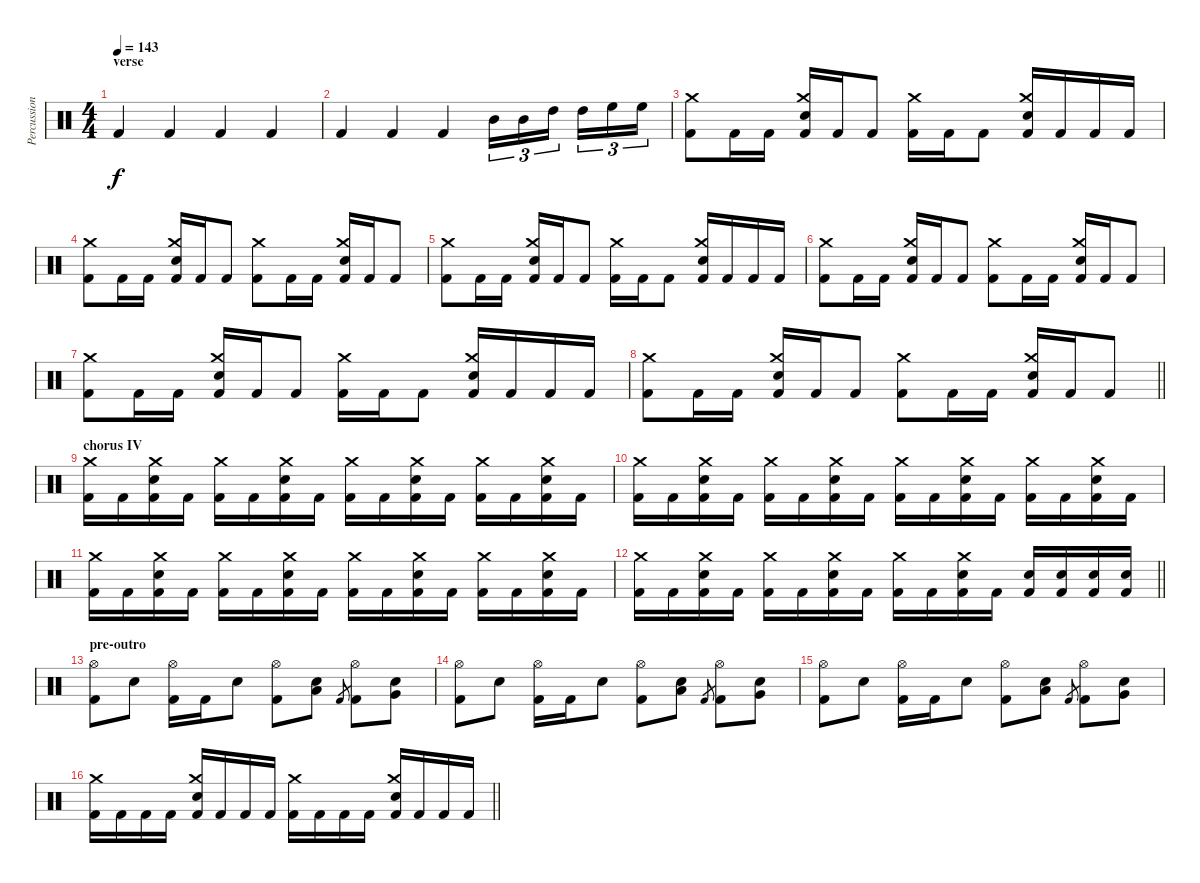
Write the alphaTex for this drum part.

\track ("Percussion" "Percussion") {instrument percussion}
\staff {score}
\articulation defaults
\ts (4 4)
\section ("" "verse")
\tempo 143
\clef neutral
\ks c "Kick (hit) 2".4{dy f} "Kick (hit) 2".4 "Kick (hit) 2".4 "Kick (hit) 2".4
|
"Kick (hit) 2".4 "Kick (hit) 2".4 "Kick (hit) 2".4 "Mid Tom (hit)".16{tu (3 2)} "Mid Tom (hit)".16{tu (3 2)} "High Tom (hit)".16{tu (3 2) beam splitsecondary} "High Tom (hit)".16{tu (3 2)} "High Floor Tom (hit)".16{tu (3 2)} "High Floor Tom (hit)".16{tu (3 2)} |
("Crash medium (hit)" "Kick (hit) 2").8 "Kick (hit) 2".16 "Kick (hit) 2".16 ("Crash medium (hit)" "Snare (hit) 2" "Kick (hit) 2").16 "Kick (hit) 2".16 "Kick (hit) 2".8 ("Crash medium (hit)" "Kick (hit) 2").16 "Kick (hit) 2".16 "Kick (hit) 2".8 ("Crash medium (hit)" "Snare (hit) 2" "Kick (hit) 2").16 "Kick (hit) 2".16 "Kick (hit) 2".16 "Kick (hit) 2".16 |
("Crash medium (hit)" "Kick (hit) 2").8 "Kick (hit) 2".16 "Kick (hit) 2".16 ("Crash medium (hit)" "Snare (hit) 2" "Kick (hit) 2").16 "Kick (hit) 2".16 "Kick (hit) 2".8 ("Crash medium (hit)" "Kick (hit) 2").8 "Kick (hit) 2".16 "Kick (hit) 2".16 ("Crash medium (hit)" "Snare (hit) 2" "Kick (hit) 2").16 "Kick (hit) 2".16 "Kick (hit) 2".8 |
("Crash medium (hit)" "Kick (hit) 2").8 "Kick (hit) 2".16 "Kick (hit) 2".16 ("Crash medium (hit)" "Snare (hit) 2" "Kick (hit) 2").16 "Kick (hit) 2".16 "Kick (hit) 2".8 ("Crash medium (hit)" "Kick (hit) 2").16 "Kick (hit) 2".16 "Kick (hit) 2".8 ("Crash medium (hit)" "Snare (hit) 2" "Kick (hit) 2").16 "Kick (hit) 2".16 "Kick (hit) 2".16 "Kick (hit) 2".16 |
("Crash medium (hit)" "Kick (hit) 2").8 "Kick (hit) 2".16 "Kick (hit) 2".16 ("Crash medium (hit)" "Snare (hit) 2" "Kick (hit) 2").16 "Kick (hit) 2".16 "Kick (hit) 2".8 ("Crash medium (hit)" "Kick (hit) 2").8 "Kick (hit) 2".16 "Kick (hit) 2".16 ("Crash medium (hit)" "Snare (hit) 2" "Kick (hit) 2").16 "Kick (hit) 2".16 "Kick (hit) 2".8 |
("Crash medium (hit)" "Kick (hit) 2").8 "Kick (hit) 2".16 "Kick (hit) 2".16 ("Crash medium (hit)" "Snare (hit) 2" "Kick (hit) 2").16 "Kick (hit) 2".16 "Kick (hit) 2".8 ("Crash medium (hit)" "Kick (hit) 2").16 "Kick (hit) 2".16 "Kick (hit) 2".8 ("Crash medium (hit)" "Snare (hit) 2" "Kick (hit) 2").16 "Kick (hit) 2".16 "Kick (hit) 2".16 "Kick (hit) 2".16 |
\barLineRight lightlight
("Crash medium (hit)" "Kick (hit) 2").8 "Kick (hit) 2".16 "Kick (hit) 2".16 ("Crash medium (hit)" "Snare (hit) 2" "Kick (hit) 2").16 "Kick (hit) 2".16 "Kick (hit) 2".8 ("Crash medium (hit)" "Kick (hit) 2").8 "Kick (hit) 2".16 "Kick (hit) 2".16 ("Crash medium (hit)" "Snare (hit) 2" "Kick (hit) 2").16 "Kick (hit) 2".16 "Kick (hit) 2".8 |
\section ("" "chorus IV")
("Crash medium (hit)" "Kick (hit) 2").16 "Kick (hit) 2".16 ("Crash medium (hit)" "Snare (hit) 2" "Kick (hit) 2").16 "Kick (hit) 2".16 ("Crash medium (hit)" "Kick (hit) 2").16 "Kick (hit) 2".16 ("Crash medium (hit)" "Snare (hit) 2" "Kick (hit) 2").16 "Kick (hit) 2".16 ("Crash medium (hit)" "Kick (hit) 2").16 "Kick (hit) 2".16 ("Crash medium (hit)" "Snare (hit) 2" "Kick (hit) 2").16 "Kick (hit) 2".16 ("Crash medium (hit)" "Kick (hit) 2").16 "Kick (hit) 2".16 ("Crash medium (hit)" "Snare (hit) 2" "Kick (hit) 2").16 "Kick (hit) 2".16 |
("Crash medium (hit)" "Kick (hit) 2").16 "Kick (hit) 2".16 ("Crash medium (hit)" "Snare (hit) 2" "Kick (hit) 2").16 "Kick (hit) 2".16 ("Crash medium (hit)" "Kick (hit) 2").16 "Kick (hit) 2".16 ("Crash medium (hit)" "Snare (hit) 2" "Kick (hit) 2").16 "Kick (hit) 2".16 ("Crash medium (hit)" "Kick (hit) 2").16 "Kick (hit) 2".16 ("Crash medium (hit)" "Snare (hit) 2" "Kick (hit) 2").16 "Kick (hit) 2".16 ("Crash medium (hit)" "Kick (hit) 2").16 "Kick (hit) 2".16 ("Crash medium (hit)" "Snare (hit) 2" "Kick (hit) 2").16 "Kick (hit) 2".16 |
("Crash medium (hit)" "Kick (hit) 2").16 "Kick (hit) 2".16 ("Crash medium (hit)" "Snare (hit) 2" "Kick (hit) 2").16 "Kick (hit) 2".16 ("Crash medium (hit)" "Kick (hit) 2").16 "Kick (hit) 2".16 ("Crash medium (hit)" "Snare (hit) 2" "Kick (hit) 2").16 "Kick (hit) 2".16 ("Crash medium (hit)" "Kick (hit) 2").16 "Kick (hit) 2".16 ("Crash medium (hit)" "Snare (hit) 2" "Kick (hit) 2").16 "Kick (hit) 2".16 ("Crash medium (hit)" "Kick (hit) 2").16 "Kick (hit) 2".16 ("Crash medium (hit)" "Snare (hit) 2" "Kick (hit) 2").16 "Kick (hit) 2".16 |
\barLineRight lightlight
("Crash medium (hit)" "Kick (hit) 2").16 "Kick (hit) 2".16 ("Crash medium (hit)" "Snare (hit) 2" "Kick (hit) 2").16 "Kick (hit) 2".16 ("Crash medium (hit)" "Kick (hit) 2").16 "Kick (hit) 2".16 ("Crash medium (hit)" "Snare (hit) 2" "Kick (hit) 2").16 "Kick (hit) 2".16 ("Crash medium (hit)" "Kick (hit) 2").16 "Kick (hit) 2".16 ("Crash medium (hit)" "Snare (hit) 2" "Kick (hit) 2").16 "Kick (hit) 2".16 ("Snare (hit) 2" "Kick (hit) 2").16 ("Snare (hit) 2" "Kick (hit) 2").16 ("Snare (hit) 2" "Kick (hit) 2").16 ("Snare (hit) 2" "Kick (hit) 2").16 |
\section ("" "pre-outro")
("Hi-Hat (open)" "Kick (hit) 2").8 "Snare (hit) 2".8 ("Hi-Hat (open)" "Kick (hit) 2").16 "Kick (hit) 2".16 "Snare (hit) 2".8 ("Hi-Hat (open)" "Kick (hit) 2").8 ("Low Floor Tom (hit)" "Snare (hit) 2").8 "Kick (hit) 2".8{gr} ("Hi-Hat (open)" "Kick (hit) 2").8 ("Very Low Tom (hit)" "Snare (hit) 2").8 |
("Hi-Hat (open)" "Kick (hit) 2").8 "Snare (hit) 2".8 ("Hi-Hat (open)" "Kick (hit) 2").16 "Kick (hit) 2".16 "Snare (hit) 2".8 ("Hi-Hat (open)" "Kick (hit) 2").8 ("Low Floor Tom (hit)" "Snare (hit) 2").8 "Kick (hit) 2".8{gr} ("Hi-Hat (open)" "Kick (hit) 2").8 ("Very Low Tom (hit)" "Snare (hit) 2").8 |
("Hi-Hat (open)" "Kick (hit) 2").8 "Snare (hit) 2".8 ("Hi-Hat (open)" "Kick (hit) 2").16 "Kick (hit) 2".16 "Snare (hit) 2".8 ("Hi-Hat (open)" "Kick (hit) 2").8 ("Low Floor Tom (hit)" "Snare (hit) 2").8 "Kick (hit) 2".8{gr} ("Hi-Hat (open)" "Kick (hit) 2").8 ("Very Low Tom (hit)" "Snare (hit) 2").8 |
\barLineRight lightlight
("Crash medium (hit)" "Kick (hit) 2").16 "Kick (hit) 2".16 "Kick (hit) 2".16 "Kick (hit) 2".16 ("Crash medium (hit)" "Snare (hit) 2" "Kick (hit) 2").16 "Kick (hit) 2".16 "Kick (hit) 2".16 "Kick (hit) 2".16 ("Crash medium (hit)" "Kick (hit) 2").16 "Kick (hit) 2".16 "Kick (hit) 2".16 "Kick (hit) 2".16 ("Crash medium (hit)" "Snare (hit) 2" "Kick (hit) 2").16 "Kick (hit) 2".16 "Kick (hit) 2".16 "Kick (hit) 2".16
